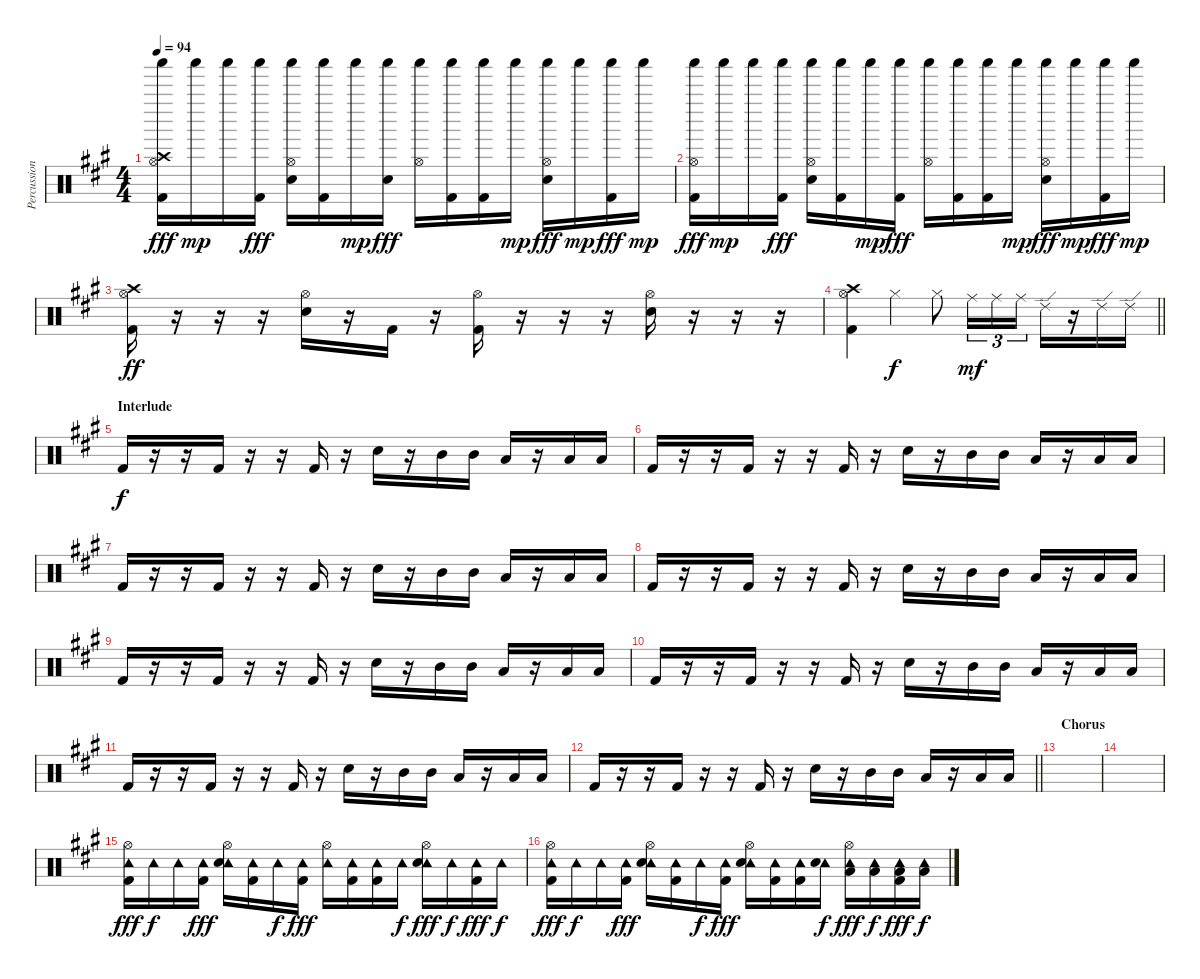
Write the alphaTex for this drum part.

\track ("Percussion" "Percussion") {instrument percussion}
\staff {score}
\articulation defaults
\ts (4 4)
\tempo 94
\clef neutral
\ks a
("Shaker (hit)" "Hi-Hat (open)" "Crash high (hit)" "Kick (hit) 2").16{dy fff} "Shaker (hit)".16{dy mp} "Shaker (hit)".16 ("Shaker (hit)" "Kick (hit) 2").16{dy fff} ("Shaker (hit)" "Hi-Hat (open)" "Snare (hit) 2").16 ("Shaker (hit)" "Kick (hit) 2").16 "Shaker (hit)".16{dy mp} ("Shaker (hit)" "Snare (hit) 2").16{dy fff} ("Shaker (hit)" "Hi-Hat (open)").16 ("Shaker (hit)" "Kick (hit) 2").16 ("Shaker (hit)" "Kick (hit) 2").16 "Shaker (hit)".16{dy mp} ("Shaker (hit)" "Hi-Hat (open)" "Snare (hit) 2").16{dy fff} "Shaker (hit)".16{dy mp} ("Shaker (hit)" "Kick (hit) 2").16{dy fff} "Shaker (hit)".16{dy mp} |
("Shaker (hit)" "Hi-Hat (open)" "Kick (hit) 2").16{dy fff} "Shaker (hit)".16{dy mp} "Shaker (hit)".16 ("Shaker (hit)" "Kick (hit) 2").16{dy fff} ("Shaker (hit)" "Hi-Hat (open)" "Snare (hit) 2").16 ("Shaker (hit)" "Kick (hit) 2").16 "Shaker (hit)".16{dy mp} ("Shaker (hit)" "Kick (hit) 2").16{dy fff} ("Shaker (hit)" "Hi-Hat (open)").16 ("Shaker (hit)" "Kick (hit) 2").16 ("Shaker (hit)" "Kick (hit) 2").16 "Shaker (hit)".16{dy mp} ("Shaker (hit)" "Hi-Hat (open)" "Snare (hit) 2").16{dy fff} "Shaker (hit)".16{dy mp} ("Shaker (hit)" "Kick (hit) 2").16{dy fff} "Shaker (hit)".16{dy mp} |
("Crash high (hit)" "Hi-Hat (open)" "Kick (hit) 2").16{dy ff} r.16 r.16 r.16 ("Hi-Hat (open)" "Snare (hit) 2").16 r.16 "Kick (hit) 2".16 r.16 ("Hi-Hat (open)" "Kick (hit) 2").16 r.16 r.16 r.16 ("Hi-Hat (open)" "Snare (hit) 2").16 r.16 r.16 r.16 |
\barLineRight lightlight
("Hi-Hat (open)" "Crash high (hit)" "Kick (hit) 2").4 "Hi-Hat (closed)".4{dy f} "Hi-Hat (closed)".8 "Ride (middle)".16{tu (3 2) dy mf} "Ride (middle)".16{tu (3 2)} "Ride (middle)".16{tu (3 2)} "Ride (edge) 2".16 r.16 "Ride (edge) 2".16 "Ride (edge) 2".16 |
\section ("" "Interlude")
"Kick (hit) 2".16{dy f} r.16 r.16 "Kick (hit) 2".16 r.16 r.16 "Kick (hit) 2".16 r.16 "Snare (hit) 2".16 r.16 "Mid Tom (hit)".16 "Mid Tom (hit)".16 "Low Tom (hit)".16 r.16 "Low Floor Tom (hit)".16 "Low Floor Tom (hit)".16 |
"Kick (hit) 2".16 r.16 r.16 "Kick (hit) 2".16 r.16 r.16 "Kick (hit) 2".16 r.16 "Snare (hit) 2".16 r.16 "Mid Tom (hit)".16 "Mid Tom (hit)".16 "Low Tom (hit)".16 r.16 "Low Floor Tom (hit)".16 "Low Floor Tom (hit)".16 |
"Kick (hit) 2".16 r.16 r.16 "Kick (hit) 2".16 r.16 r.16 "Kick (hit) 2".16 r.16 "Snare (hit) 2".16 r.16 "Mid Tom (hit)".16 "Mid Tom (hit)".16 "Low Tom (hit)".16 r.16 "Low Floor Tom (hit)".16 "Low Floor Tom (hit)".16 |
"Kick (hit) 2".16 r.16 r.16 "Kick (hit) 2".16 r.16 r.16 "Kick (hit) 2".16 r.16 "Snare (hit) 2".16 r.16 "Mid Tom (hit)".16 "Mid Tom (hit)".16 "Low Tom (hit)".16 r.16 "Low Floor Tom (hit)".16 "Low Floor Tom (hit)".16 |
"Kick (hit) 2".16 r.16 r.16 "Kick (hit) 2".16 r.16 r.16 "Kick (hit) 2".16 r.16 "Snare (hit) 2".16 r.16 "Mid Tom (hit)".16 "Mid Tom (hit)".16 "Low Tom (hit)".16 r.16 "Low Floor Tom (hit)".16 "Low Floor Tom (hit)".16 |
"Kick (hit) 2".16 r.16 r.16 "Kick (hit) 2".16 r.16 r.16 "Kick (hit) 2".16 r.16 "Snare (hit) 2".16 r.16 "Mid Tom (hit)".16 "Mid Tom (hit)".16 "Low Tom (hit)".16 r.16 "Low Floor Tom (hit)".16 "Low Floor Tom (hit)".16 |
"Kick (hit) 2".16 r.16 r.16 "Kick (hit) 2".16 r.16 r.16 "Kick (hit) 2".16 r.16 "Snare (hit) 2".16 r.16 "Mid Tom (hit)".16 "Mid Tom (hit)".16 "Low Tom (hit)".16 r.16 "Low Floor Tom (hit)".16 "Low Floor Tom (hit)".16 |
\barLineRight lightlight "Kick (hit) 2".16
r.16 r.16 "Kick (hit) 2".16 r.16 r.16 "Kick (hit) 2".16 r.16 "Snare (hit) 2".16 r.16 "Mid Tom (hit)".16 "Mid Tom (hit)".16 "Low Tom (hit)".16 r.16 "Low Floor Tom (hit)".16 "Low Floor Tom (hit)".16 |
\section ("" "Chorus")
|
|
("Tambourine (hit)" "Hi-Hat (open)" "Kick (hit) 2").16{dy fff} "Tambourine (hit)".16{dy f} "Tambourine (hit)".16 ("Tambourine (hit)" "Kick (hit) 2").16{dy fff} ("Tambourine (hit)" "Hi-Hat (open)" "Snare (hit) 2").16 ("Tambourine (hit)" "Kick (hit) 2").16 "Tambourine (hit)".16{dy f} ("Tambourine (hit)" "Kick (hit) 2").16{dy fff} ("Tambourine (hit)" "Hi-Hat (open)").16 ("Tambourine (hit)" "Kick (hit) 2").16 ("Tambourine (hit)" "Kick (hit) 2").16 "Tambourine (hit)".16{dy f} ("Tambourine (hit)" "Hi-Hat (open)" "Snare (hit) 2").16{dy fff} "Tambourine (hit)".16{dy f} ("Tambourine (hit)" "Kick (hit) 2").16{dy fff} "Tambourine (hit)".16{dy f} |
("Tambourine (hit)" "Hi-Hat (open)" "Kick (hit) 2").16{dy fff} "Tambourine (hit)".16{dy f} "Tambourine (hit)".16 ("Tambourine (hit)" "Kick (hit) 2").16{dy fff} ("Tambourine (hit)" "Hi-Hat (open)" "Snare (hit) 2").16 ("Tambourine (hit)" "Kick (hit) 2").16 "Tambourine (hit)".16{dy f} ("Tambourine (hit)" "Kick (hit) 2").16{dy fff} ("Tambourine (hit)" "Hi-Hat (open)" "Snare (hit) 2").16 ("Tambourine (hit)" "Kick (hit) 2").16 ("Tambourine (hit)" "Kick (hit) 2").16 ("Tambourine (hit)" "Snare (hit) 2").16{dy f} ("Tambourine (hit)" "Hi-Hat (open)" "Low Tom (hit)").16{dy fff} ("Tambourine (hit)" "Low Tom (hit)").16{dy f} ("Tambourine (hit)" "Low Tom (hit)" "Kick (hit) 2").16{dy fff} ("Tambourine (hit)" "Low Tom (hit)").16{dy f}
